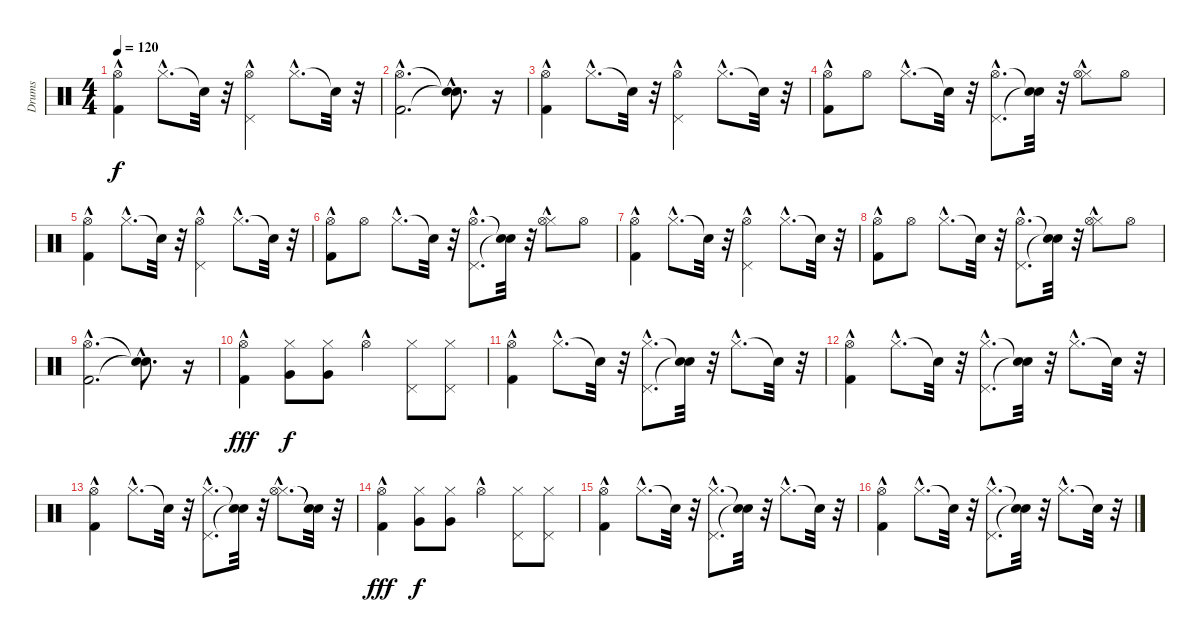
\track ("Drums" "Drums") {instrument percussion}
\staff {score}
\articulation defaults
\ts (4 4)
\tempo 120
\clef neutral
\ks c
("Kick (hit) 2"{hac} "Hi-Hat (open)").4{dy f} "Hi-Hat (closed)"{hac}.8{d} "Snare (hit)"{t}.32 r.32 ("Pedal Hi-Hat (hit)"{hac} "Hi-Hat (open)"{hac}).4 "Hi-Hat (closed)"{hac}.8{d} "Snare (hit)"{t}.32 r.32 |
("Kick (hit) 2"{hac} "Hi-Hat (open)"{hac}).2{d} ("Snare (hit)"{hac t} "Snare (hit)"{hac t}).8{d} r.16 |
("Kick (hit) 2"{hac} "Hi-Hat (open)").4 "Hi-Hat (closed)"{hac}.8{d} "Snare (hit)"{t}.32 r.32 ("Pedal Hi-Hat (hit)"{hac} "Hi-Hat (open)"{hac}).4 "Hi-Hat (closed)"{hac}.8{d} "Snare (hit)"{t}.32 r.32 |
("Kick (hit) 2"{hac} "Hi-Hat (open)").8 "Hi-Hat (open)".8 "Hi-Hat (closed)"{hac}.8{d} "Snare (hit)"{t}.32 r.32 ("Pedal Hi-Hat (hit)"{hac} "Hi-Hat (open)"{hac}).8{d} ("Snare (hit)"{t} "Snare (hit)"{t}).32 r.32 ("Hi-Hat (closed)"{hac} "Hi-Hat (open)").8 "Hi-Hat (open)".8 |
("Kick (hit) 2"{hac} "Hi-Hat (open)").4 "Hi-Hat (closed)"{hac}.8{d} "Snare (hit)"{t}.32 r.32 ("Pedal Hi-Hat (hit)"{hac} "Hi-Hat (open)"{hac}).4 "Hi-Hat (closed)"{hac}.8{d} "Snare (hit)"{t}.32 r.32 |
("Kick (hit) 2"{hac} "Hi-Hat (open)").8 "Hi-Hat (open)".8 "Hi-Hat (closed)"{hac}.8{d} "Snare (hit)"{t}.32 r.32 ("Pedal Hi-Hat (hit)"{hac} "Hi-Hat (open)"{hac}).8{d} ("Snare (hit)"{t} "Snare (hit)"{t}).32 r.32 ("Hi-Hat (closed)"{hac} "Hi-Hat (open)").8 "Hi-Hat (open)".8 |
("Kick (hit) 2"{hac} "Hi-Hat (open)").4 "Hi-Hat (closed)"{hac}.8{d} "Snare (hit)"{t}.32 r.32 ("Pedal Hi-Hat (hit)"{hac} "Hi-Hat (open)"{hac}).4 "Hi-Hat (closed)"{hac}.8{d} "Snare (hit)"{t}.32 r.32 |
("Kick (hit) 2"{hac} "Hi-Hat (open)").8 "Hi-Hat (open)".8 "Hi-Hat (closed)"{hac}.8{d} "Snare (hit)"{t}.32 r.32 ("Pedal Hi-Hat (hit)"{hac} "Hi-Hat (open)"{hac}).8{d} ("Snare (hit)"{t} "Snare (hit)"{t}).32 r.32 ("Hi-Hat (closed)"{hac} "Hi-Hat (open)").8 "Hi-Hat (open)".8 |
("Kick (hit) 2"{hac} "Hi-Hat (open)"{hac}).2{d} ("Snare (hit)"{hac t} "Snare (hit)"{hac t}).8{d} r.16 |
("Kick (hit) 2"{hac} "Hi-Hat (open)").4{dy fff} ("Hi-Hat (closed)" "Very Low Tom (hit)").8{dy f} ("Hi-Hat (closed)" "Very Low Tom (hit)").8 "Hi-Hat (open)"{hac}.4 ("Hi-Hat (closed)" "Pedal Hi-Hat (hit)").8 ("Hi-Hat (closed)" "Pedal Hi-Hat (hit)").8 |
("Kick (hit) 2"{hac} "Hi-Hat (open)"{hac}).4 "Hi-Hat (closed)"{hac}.8{d} "Snare (hit)"{t}.32 r.32 ("Hi-Hat (closed)"{hac} "Pedal Hi-Hat (hit)"{hac}).8{d} ("Snare (hit)"{t} "Snare (hit)"{t}).32 r.32 "Hi-Hat (closed)"{hac}.8{d} "Snare (hit)"{t}.32 r.32 |
("Kick (hit) 2"{hac} "Hi-Hat (open)"{hac}).4 "Hi-Hat (closed)"{hac}.8{d} "Snare (hit)"{t}.32 r.32 ("Hi-Hat (closed)"{hac} "Pedal Hi-Hat (hit)"{hac}).8{d} ("Snare (hit)"{t} "Snare (hit)"{t}).32 r.32 "Hi-Hat (closed)"{hac}.8{d} "Snare (hit)"{t}.32 r.32 |
("Kick (hit) 2"{hac} "Hi-Hat (open)").4 "Hi-Hat (closed)"{hac}.8{d} "Snare (hit)"{t}.32 r.32 ("Hi-Hat (closed)"{hac} "Pedal Hi-Hat (hit)"{hac}).8{d} ("Snare (hit)"{t} "Snare (hit)"{t}).32 r.32 ("Hi-Hat (closed)"{hac} "Hi-Hat (open)"{hac}).8{d} ("Snare (hit)"{t} "Snare (hit)"{t}).32 r.32 |
("Kick (hit) 2"{hac} "Hi-Hat (open)").4{dy fff} ("Hi-Hat (closed)" "Very Low Tom (hit)").8{dy f} ("Hi-Hat (closed)" "Very Low Tom (hit)").8 "Hi-Hat (open)"{hac}.4 ("Hi-Hat (closed)" "Pedal Hi-Hat (hit)").8 ("Hi-Hat (closed)" "Pedal Hi-Hat (hit)").8 |
("Kick (hit) 2"{hac} "Hi-Hat (open)"{hac}).4 "Hi-Hat (closed)"{hac}.8{d} "Snare (hit)"{t}.32 r.32 ("Hi-Hat (closed)"{hac} "Pedal Hi-Hat (hit)"{hac}).8{d} ("Snare (hit)"{t} "Snare (hit)"{t}).32 r.32 "Hi-Hat (closed)"{hac}.8{d} "Snare (hit)"{t}.32 r.32 |
("Kick (hit) 2"{hac} "Hi-Hat (open)"{hac}).4 "Hi-Hat (closed)"{hac}.8{d} "Snare (hit)"{t}.32 r.32 ("Hi-Hat (closed)"{hac} "Pedal Hi-Hat (hit)"{hac}).8{d} ("Snare (hit)"{t} "Snare (hit)"{t}).32 r.32 "Hi-Hat (closed)"{hac}.8{d} "Snare (hit)"{t}.32 r.32
